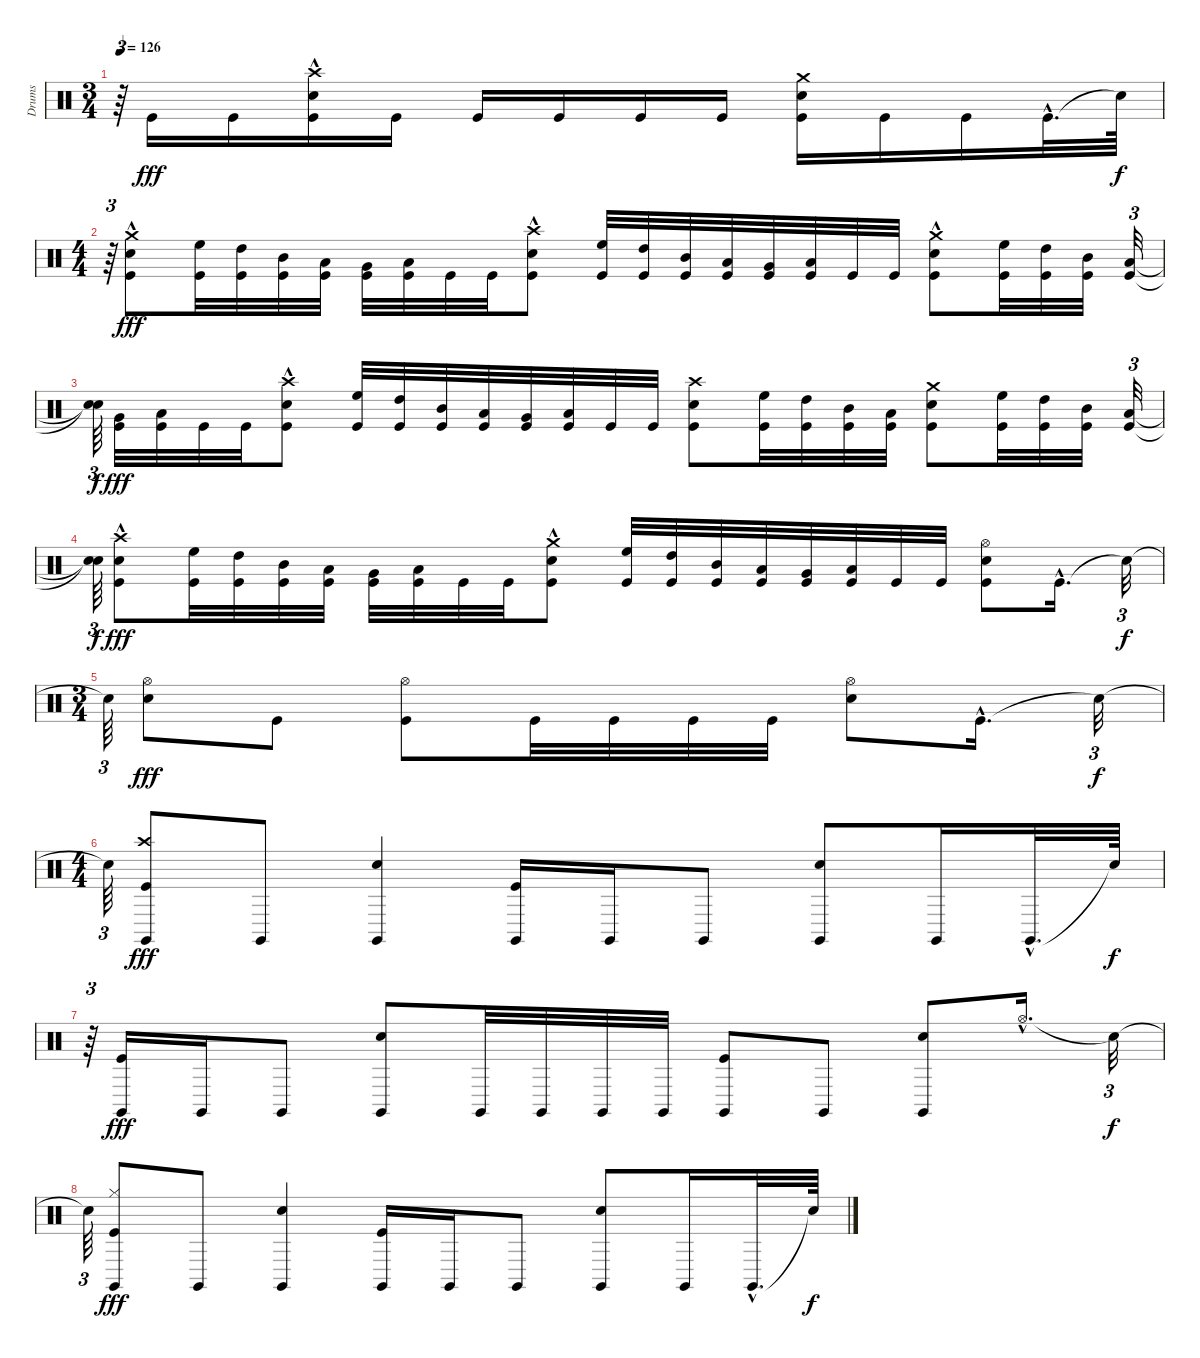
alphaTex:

\track ("Drums" "Drums") {instrument percussion}
\staff {score}
\articulation defaults
\ts (3 4)
\tempo 126
\clef neutral
\ks c
r.64{tu (3 2) dy f} "Kick (hit)".16{dy fff} "Kick (hit)".16 ("Kick (hit)" "Snare (hit) 2" "Crash high (hit)"{hac}).16 "Kick (hit)".16 "Kick (hit)".16 "Kick (hit)".16 "Kick (hit)".16 "Kick (hit)".16 ("Kick (hit)" "Snare (hit) 2" "Crash medium (hit)").16 "Kick (hit)".16 "Kick (hit)".16 "Kick (hit)"{hac}.32{d} "Snare (hit)"{t}.64{dy f} |
\ts (4 4)
r.64{tu (3 2)} ("Kick (hit)" "Snare (hit) 2" "Crash medium (hit)"{hac}).8{dy fff} ("Kick (hit)" "High Floor Tom (hit)").32 ("Kick (hit)" "High Tom (hit)").32 ("Kick (hit)" "Mid Tom (hit)").32 ("Kick (hit)" "Low Tom (hit)").32 ("Kick (hit)" "Very Low Tom (hit)").32 ("Kick (hit)" "Low Floor Tom (hit)").32 "Kick (hit)".32 "Kick (hit)".32 ("Kick (hit)" "Snare (hit) 2" "Crash high (hit)"{hac}).8 ("Kick (hit)" "High Floor Tom (hit)").32 ("Kick (hit)" "High Tom (hit)").32 ("Kick (hit)" "Mid Tom (hit)").32 ("Kick (hit)" "Low Tom (hit)").32 ("Kick (hit)" "Very Low Tom (hit)").32 ("Kick (hit)" "Low Floor Tom (hit)").32 "Kick (hit)".32 "Kick (hit)".32 ("Kick (hit)" "Snare (hit) 2" "Crash medium (hit)"{hac}).8 ("Kick (hit)" "High Floor Tom (hit)").32 ("Kick (hit)" "High Tom (hit)").32 ("Kick (hit)" "Mid Tom (hit)").32 ("Kick (hit)" "Low Tom (hit)").32{tu (3 2)} |
("Snare (hit)"{t} "Snare (hit)"{t}).64{tu (3 2) dy f} ("Kick (hit)" "Very Low Tom (hit)").32{dy fff} ("Kick (hit)" "Low Floor Tom (hit)").32 "Kick (hit)".32 "Kick (hit)".32 ("Kick (hit)" "Snare (hit) 2" "Crash high (hit)"{hac}).8 ("Kick (hit)" "High Floor Tom (hit)").32 ("Kick (hit)" "High Tom (hit)").32 ("Kick (hit)" "Mid Tom (hit)").32 ("Kick (hit)" "Low Tom (hit)").32 ("Kick (hit)" "Very Low Tom (hit)").32 ("Kick (hit)" "Low Floor Tom (hit)").32 "Kick (hit)".32 "Kick (hit)".32 ("Kick (hit)" "Snare (hit) 2" "Crash high (hit)").8 ("Kick (hit)" "High Floor Tom (hit)").32 ("Kick (hit)" "High Tom (hit)").32 ("Kick (hit)" "Mid Tom (hit)").32 ("Kick (hit)" "Low Tom (hit)").32 ("Kick (hit)" "Snare (hit) 2" "Crash medium (hit)").8 ("Kick (hit)" "High Floor Tom (hit)").32 ("Kick (hit)" "High Tom (hit)").32 ("Kick (hit)" "Mid Tom (hit)").32 ("Kick (hit)" "Low Tom (hit)").32{tu (3 2)} |
("Snare (hit)"{t} "Snare (hit)"{t}).64{tu (3 2) dy f} ("Kick (hit)" "Snare (hit) 2" "Crash high (hit)"{hac}).8{dy fff} ("Kick (hit)" "High Floor Tom (hit)").32 ("Kick (hit)" "High Tom (hit)").32 ("Kick (hit)" "Mid Tom (hit)").32 ("Kick (hit)" "Low Tom (hit)").32 ("Kick (hit)" "Very Low Tom (hit)").32 ("Kick (hit)" "Low Floor Tom (hit)").32 "Kick (hit)".32 "Kick (hit)".32 ("Kick (hit)" "Snare (hit) 2" "Crash medium (hit)"{hac}).8 ("Kick (hit)" "High Floor Tom (hit)").32 ("Kick (hit)" "High Tom (hit)").32 ("Kick (hit)" "Mid Tom (hit)").32 ("Kick (hit)" "Low Tom (hit)").32 ("Kick (hit)" "Very Low Tom (hit)").32 ("Kick (hit)" "Low Floor Tom (hit)").32 "Kick (hit)".32 "Kick (hit)".32 ("Kick (hit)" "Snare (hit) 2" "Hi-Hat (open)").8 "Kick (hit)"{hac}.16{d} "Snare (hit)"{t}.32{tu (3 2) dy f} |
\ts (3 4)
"Snare (hit)"{t}.64{tu (3 2)} ("Snare (hit) 2" "Hi-Hat (open)").8{dy fff} "Kick (hit)".8 ("Kick (hit)" "Hi-Hat (open)").8 "Kick (hit)".32 "Kick (hit)".32 "Kick (hit)".32 "Kick (hit)".32 ("Snare (hit) 2" "Hi-Hat (open)").8 "Kick (hit)"{hac}.16{d} "Snare (hit)"{t}.32{tu (3 2) dy f} |
\ts (4 4)
"Snare (hit)"{t}.64{tu (3 2)} ("Kick (hit)" "Crash high (hit)" "Claves (hit)").8{dy fff} "Claves (hit)".8 ("Snare (hit) 2" "Claves (hit)").4 ("Kick (hit)" "Claves (hit)").16 "Claves (hit)".16 "Claves (hit)".8 ("Snare (hit) 2" "Claves (hit)").8 "Claves (hit)".16 "Claves (hit)"{hac}.32{d} "Snare (hit)"{t}.64{dy f} |
r.64{tu (3 2)} ("Kick (hit)" "Claves (hit)").16{dy fff} "Claves (hit)".16 "Claves (hit)".8 ("Snare (hit) 2" "Claves (hit)").8 "Claves (hit)".32 "Claves (hit)".32 "Claves (hit)".32 "Claves (hit)".32 ("Kick (hit)" "Claves (hit)").8 "Claves (hit)".8 ("Snare (hit) 2" "Claves (hit)").8 "Hi-Hat (open)"{hac}.16{d} "Snare (hit)"{t}.32{tu (3 2) dy f} |
"Snare (hit)"{t}.64{tu (3 2)} ("Kick (hit)" "Hi-Hat (closed)" "Claves (hit)").8{dy fff} "Claves (hit)".8 ("Snare (hit) 2" "Claves (hit)").4 ("Kick (hit)" "Claves (hit)").16 "Claves (hit)".16 "Claves (hit)".8 ("Snare (hit) 2" "Claves (hit)").8 "Claves (hit)".16 "Claves (hit)"{hac}.32{d} "Snare (hit)"{t}.64{dy f}
